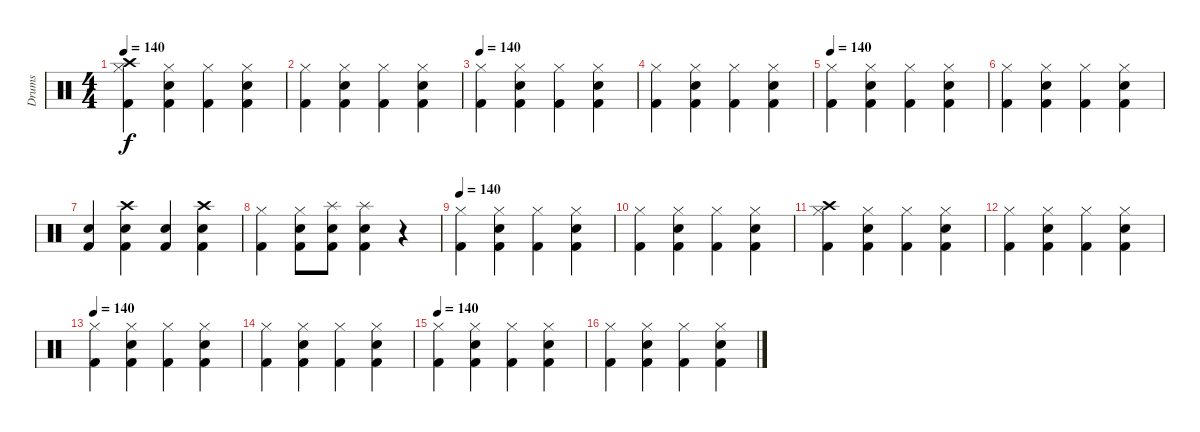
\track ("Drums" "Drums") {instrument percussion}
\staff {score}
\articulation defaults
\ts (4 4)
\tempo 140
\clef neutral
\ks c
("Hi-Hat (closed)" "Crash high (hit)" "Kick (hit) 2").4{dy f} ("Hi-Hat (closed)" "Electric Snare (hit)" "Kick (hit) 2").4 ("Hi-Hat (closed)" "Kick (hit) 2").4 ("Hi-Hat (closed)" "Electric Snare (hit)" "Kick (hit) 2").4 |
("Hi-Hat (closed)" "Kick (hit) 2").4 ("Hi-Hat (closed)" "Electric Snare (hit)" "Kick (hit) 2").4 ("Hi-Hat (closed)" "Kick (hit) 2").4 ("Hi-Hat (closed)" "Electric Snare (hit)" "Kick (hit) 2").4 |
\tempo 140
("Hi-Hat (closed)" "Kick (hit) 2").4 ("Hi-Hat (closed)" "Electric Snare (hit)" "Kick (hit) 2").4 ("Hi-Hat (closed)" "Kick (hit) 2").4 ("Hi-Hat (closed)" "Electric Snare (hit)" "Kick (hit) 2").4 |
("Hi-Hat (closed)" "Kick (hit) 2").4 ("Hi-Hat (closed)" "Electric Snare (hit)" "Kick (hit) 2").4 ("Hi-Hat (closed)" "Kick (hit) 2").4 ("Hi-Hat (closed)" "Electric Snare (hit)" "Kick (hit) 2").4 |
\tempo 140
("Hi-Hat (closed)" "Kick (hit) 2").4 ("Hi-Hat (closed)" "Electric Snare (hit)" "Kick (hit) 2").4 ("Hi-Hat (closed)" "Kick (hit) 2").4 ("Hi-Hat (closed)" "Electric Snare (hit)" "Kick (hit) 2").4 |
("Hi-Hat (closed)" "Kick (hit) 2").4 ("Hi-Hat (closed)" "Electric Snare (hit)" "Kick (hit) 2").4 ("Hi-Hat (closed)" "Kick (hit) 2").4 ("Hi-Hat (closed)" "Electric Snare (hit)" "Kick (hit) 2").4 |
("Electric Snare (hit)" "Kick (hit) 2").4 ("Crash high (hit)" "Electric Snare (hit)" "Kick (hit) 2").4 ("Electric Snare (hit)" "Kick (hit) 2").4 ("Crash high (hit)" "Electric Snare (hit)" "Kick (hit) 2").4 |
("Hi-Hat (closed)" "Kick (hit) 2").4 ("Hi-Hat (closed)" "Electric Snare (hit)" "Kick (hit) 2").8 ("Splash (hit)" "Electric Snare (hit)" "Kick (hit) 2").8 ("Splash (hit)" "Electric Snare (hit)" "Kick (hit) 2").4 r.4 |
\tempo 140
("Hi-Hat (closed)" "Kick (hit) 2").4 ("Hi-Hat (closed)" "Electric Snare (hit)" "Kick (hit) 2").4 ("Hi-Hat (closed)" "Kick (hit) 2").4 ("Hi-Hat (closed)" "Electric Snare (hit)" "Kick (hit) 2").4 |
("Hi-Hat (closed)" "Kick (hit) 2").4 ("Hi-Hat (closed)" "Electric Snare (hit)" "Kick (hit) 2").4 ("Hi-Hat (closed)" "Kick (hit) 2").4 ("Hi-Hat (closed)" "Electric Snare (hit)" "Kick (hit) 2").4 |
("Hi-Hat (closed)" "Crash high (hit)" "Kick (hit) 2").4 ("Hi-Hat (closed)" "Electric Snare (hit)" "Kick (hit) 2").4 ("Hi-Hat (closed)" "Kick (hit) 2").4 ("Hi-Hat (closed)" "Electric Snare (hit)" "Kick (hit) 2").4 |
("Hi-Hat (closed)" "Kick (hit) 2").4 ("Hi-Hat (closed)" "Electric Snare (hit)" "Kick (hit) 2").4 ("Hi-Hat (closed)" "Kick (hit) 2").4 ("Hi-Hat (closed)" "Electric Snare (hit)" "Kick (hit) 2").4 |
\tempo 140
("Hi-Hat (closed)" "Kick (hit) 2").4 ("Hi-Hat (closed)" "Electric Snare (hit)" "Kick (hit) 2").4 ("Hi-Hat (closed)" "Kick (hit) 2").4 ("Hi-Hat (closed)" "Electric Snare (hit)" "Kick (hit) 2").4 |
("Hi-Hat (closed)" "Kick (hit) 2").4 ("Hi-Hat (closed)" "Electric Snare (hit)" "Kick (hit) 2").4 ("Hi-Hat (closed)" "Kick (hit) 2").4 ("Hi-Hat (closed)" "Electric Snare (hit)" "Kick (hit) 2").4 |
\tempo 140
("Hi-Hat (closed)" "Kick (hit) 2").4 ("Hi-Hat (closed)" "Electric Snare (hit)" "Kick (hit) 2").4 ("Hi-Hat (closed)" "Kick (hit) 2").4 ("Hi-Hat (closed)" "Electric Snare (hit)" "Kick (hit) 2").4 |
("Hi-Hat (closed)" "Kick (hit) 2").4 ("Hi-Hat (closed)" "Electric Snare (hit)" "Kick (hit) 2").4 ("Hi-Hat (closed)" "Kick (hit) 2").4 ("Hi-Hat (closed)" "Electric Snare (hit)" "Kick (hit) 2").4
